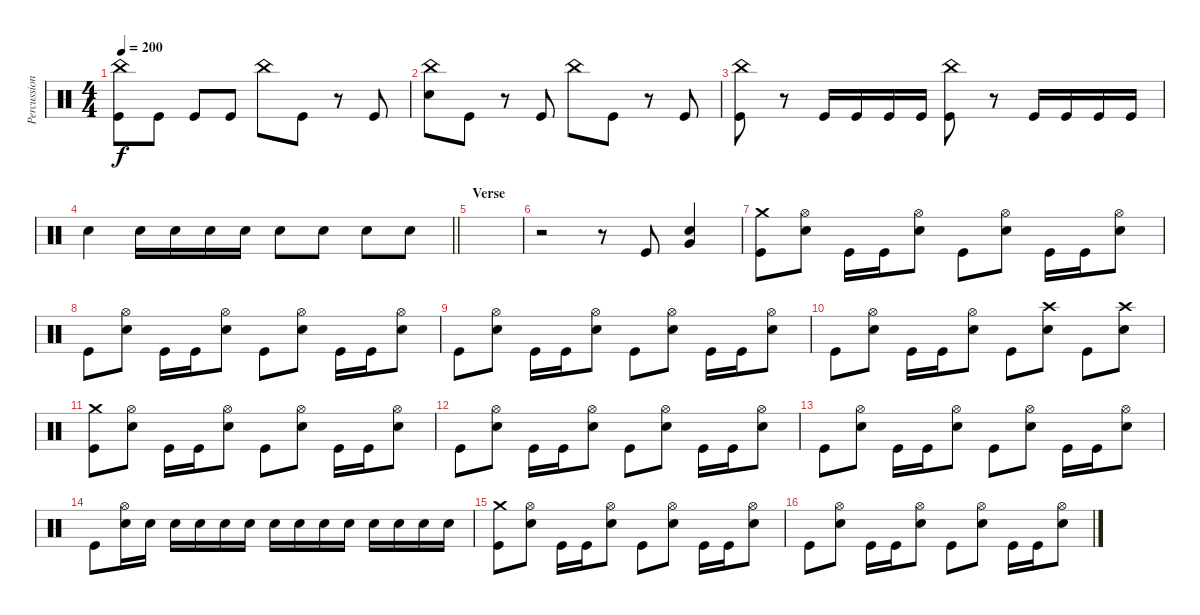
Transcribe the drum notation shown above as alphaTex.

\track ("Percussion" "Percussion") {instrument percussion}
\staff {score}
\articulation defaults
\ts (4 4)
\tempo 200
\clef neutral
\ks c
("China (hit)" "Kick (hit)").8{dy f} "Kick (hit)".8 "Kick (hit)".8 "Kick (hit)".8 "China (hit)".8 "Kick (hit)".8 r.8 "Kick (hit)".8 |
("China (hit)" "Electric Snare (hit)").8 "Kick (hit)".8 r.8 "Kick (hit)".8 "China (hit)".8 "Kick (hit)".8 r.8 "Kick (hit)".8 |
("China (hit)" "Kick (hit)").8 r.8 "Kick (hit)".16 "Kick (hit)".16 "Kick (hit)".16 "Kick (hit)".16 ("China (hit)" "Kick (hit)").8 r.8 "Kick (hit)".16 "Kick (hit)".16 "Kick (hit)".16 "Kick (hit)".16 |
\barLineRight lightlight "Electric Snare (hit)".4 "Electric Snare (hit)".16 "Electric Snare (hit)".16 "Electric Snare (hit)".16 "Electric Snare (hit)".16 "Electric Snare (hit)".8 "Electric Snare (hit)".8 "Electric Snare (hit)".8 "Electric Snare (hit)".8
|
\section ("" "Verse")
|
r.2 r.8 "Kick (hit)".8 ("Very Low Tom (hit)" "Electric Snare (hit)").4 |
("Crash medium (hit)" "Kick (hit)").8 ("Hi-Hat (open)" "Electric Snare (hit)").8 "Kick (hit)".16 "Kick (hit)".16 ("Hi-Hat (open)" "Electric Snare (hit)").8 "Kick (hit)".8 ("Hi-Hat (open)" "Electric Snare (hit)").8 "Kick (hit)".16 "Kick (hit)".16 ("Hi-Hat (open)" "Electric Snare (hit)").8 |
"Kick (hit)".8 ("Hi-Hat (open)" "Electric Snare (hit)").8 "Kick (hit)".16 "Kick (hit)".16 ("Hi-Hat (open)" "Electric Snare (hit)").8 "Kick (hit)".8 ("Hi-Hat (open)" "Electric Snare (hit)").8 "Kick (hit)".16 "Kick (hit)".16 ("Hi-Hat (open)" "Electric Snare (hit)").8 |
"Kick (hit)".8 ("Hi-Hat (open)" "Electric Snare (hit)").8 "Kick (hit)".16 "Kick (hit)".16 ("Hi-Hat (open)" "Electric Snare (hit)").8 "Kick (hit)".8 ("Hi-Hat (open)" "Electric Snare (hit)").8 "Kick (hit)".16 "Kick (hit)".16 ("Hi-Hat (open)" "Electric Snare (hit)").8 |
"Kick (hit)".8 ("Hi-Hat (open)" "Electric Snare (hit)").8 "Kick (hit)".16 "Kick (hit)".16 ("Hi-Hat (open)" "Electric Snare (hit)").8 "Kick (hit)".8 ("Crash high (hit)" "Electric Snare (hit)").8 "Kick (hit)".8 ("Crash high (hit)" "Electric Snare (hit)").8 |
("Crash medium (hit)" "Kick (hit)").8 ("Hi-Hat (open)" "Electric Snare (hit)").8 "Kick (hit)".16 "Kick (hit)".16 ("Hi-Hat (open)" "Electric Snare (hit)").8 "Kick (hit)".8 ("Hi-Hat (open)" "Electric Snare (hit)").8 "Kick (hit)".16 "Kick (hit)".16 ("Hi-Hat (open)" "Electric Snare (hit)").8 |
"Kick (hit)".8 ("Hi-Hat (open)" "Electric Snare (hit)").8 "Kick (hit)".16 "Kick (hit)".16 ("Hi-Hat (open)" "Electric Snare (hit)").8 "Kick (hit)".8 ("Hi-Hat (open)" "Electric Snare (hit)").8 "Kick (hit)".16 "Kick (hit)".16 ("Hi-Hat (open)" "Electric Snare (hit)").8 |
"Kick (hit)".8 ("Hi-Hat (open)" "Electric Snare (hit)").8 "Kick (hit)".16 "Kick (hit)".16 ("Hi-Hat (open)" "Electric Snare (hit)").8 "Kick (hit)".8 ("Hi-Hat (open)" "Electric Snare (hit)").8 "Kick (hit)".16 "Kick (hit)".16 ("Hi-Hat (open)" "Electric Snare (hit)").8 |
"Kick (hit)".8 ("Hi-Hat (open)" "Electric Snare (hit)").16 "Electric Snare (hit)".16 "Electric Snare (hit)".16 "Electric Snare (hit)".16 "Electric Snare (hit)".16 "Electric Snare (hit)".16 "Electric Snare (hit)".16 "Electric Snare (hit)".16 "Electric Snare (hit)".16 "Electric Snare (hit)".16 "Electric Snare (hit)".16 "Electric Snare (hit)".16 "Electric Snare (hit)".16 "Electric Snare (hit)".16 |
("Crash medium (hit)" "Kick (hit)").8 ("Hi-Hat (open)" "Electric Snare (hit)").8 "Kick (hit)".16 "Kick (hit)".16 ("Hi-Hat (open)" "Electric Snare (hit)").8 "Kick (hit)".8 ("Hi-Hat (open)" "Electric Snare (hit)").8 "Kick (hit)".16 "Kick (hit)".16 ("Hi-Hat (open)" "Electric Snare (hit)").8 |
"Kick (hit)".8 ("Hi-Hat (open)" "Electric Snare (hit)").8 "Kick (hit)".16 "Kick (hit)".16 ("Hi-Hat (open)" "Electric Snare (hit)").8 "Kick (hit)".8 ("Hi-Hat (open)" "Electric Snare (hit)").8 "Kick (hit)".16 "Kick (hit)".16 ("Hi-Hat (open)" "Electric Snare (hit)").8
